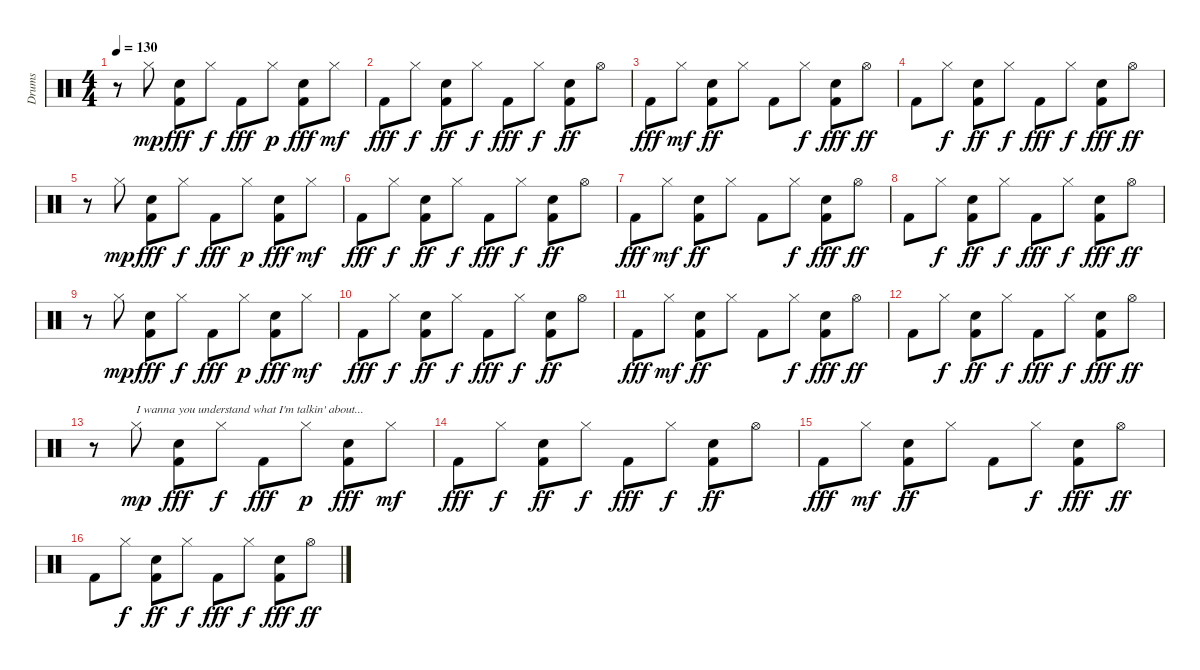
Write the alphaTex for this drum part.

\track ("Drums" "Drums") {instrument percussion}
\staff {score}
\articulation defaults
\ts (4 4)
\tempo 130
\clef neutral
\ks c
r.8{dy ff} "Hi-Hat (closed)".8{dy mp} ("Kick (hit) 2" "Snare (hit) 2").8{dy fff} "Hi-Hat (closed)".8{dy f} "Kick (hit) 2".8{dy fff} "Hi-Hat (closed)".8{dy p} ("Kick (hit) 2" "Snare (hit) 2").8{dy fff} "Hi-Hat (closed)".8{dy mf} |
"Kick (hit) 2".8{dy fff} "Hi-Hat (closed)".8{dy f} ("Kick (hit) 2" "Snare (hit) 2").8{dy ff} "Hi-Hat (closed)".8{dy f} "Kick (hit) 2".8{dy fff} "Hi-Hat (closed)".8{dy f} ("Kick (hit) 2" "Snare (hit) 2").8{dy ff} "Hi-Hat (open)".8 |
"Kick (hit) 2".8{dy fff} "Hi-Hat (closed)".8{dy mf} ("Kick (hit) 2" "Snare (hit) 2").8{dy ff} "Hi-Hat (closed)".8 "Kick (hit) 2".8 "Hi-Hat (closed)".8{dy f} ("Kick (hit) 2" "Snare (hit) 2").8{dy fff} "Hi-Hat (open)".8{dy ff} |
"Kick (hit) 2".8 "Hi-Hat (closed)".8{dy f} ("Kick (hit) 2" "Snare (hit) 2").8{dy ff} "Hi-Hat (closed)".8{dy f} "Kick (hit) 2".8{dy fff} "Hi-Hat (closed)".8{dy f} ("Kick (hit) 2" "Snare (hit) 2").8{dy fff} "Hi-Hat (open)".8{dy ff} |
r.8 "Hi-Hat (closed)".8{dy mp} ("Kick (hit) 2" "Snare (hit) 2").8{dy fff} "Hi-Hat (closed)".8{dy f} "Kick (hit) 2".8{dy fff} "Hi-Hat (closed)".8{dy p} ("Kick (hit) 2" "Snare (hit) 2").8{dy fff} "Hi-Hat (closed)".8{dy mf} |
"Kick (hit) 2".8{dy fff} "Hi-Hat (closed)".8{dy f} ("Kick (hit) 2" "Snare (hit) 2").8{dy ff} "Hi-Hat (closed)".8{dy f} "Kick (hit) 2".8{dy fff} "Hi-Hat (closed)".8{dy f} ("Kick (hit) 2" "Snare (hit) 2").8{dy ff} "Hi-Hat (open)".8 |
"Kick (hit) 2".8{dy fff} "Hi-Hat (closed)".8{dy mf} ("Kick (hit) 2" "Snare (hit) 2").8{dy ff} "Hi-Hat (closed)".8 "Kick (hit) 2".8 "Hi-Hat (closed)".8{dy f} ("Kick (hit) 2" "Snare (hit) 2").8{dy fff} "Hi-Hat (open)".8{dy ff} |
"Kick (hit) 2".8 "Hi-Hat (closed)".8{dy f} ("Kick (hit) 2" "Snare (hit) 2").8{dy ff} "Hi-Hat (closed)".8{dy f} "Kick (hit) 2".8{dy fff} "Hi-Hat (closed)".8{dy f} ("Kick (hit) 2" "Snare (hit) 2").8{dy fff} "Hi-Hat (open)".8{dy ff} |
r.8 "Hi-Hat (closed)".8{dy mp} ("Kick (hit) 2" "Snare (hit) 2").8{dy fff} "Hi-Hat (closed)".8{dy f} "Kick (hit) 2".8{dy fff} "Hi-Hat (closed)".8{dy p} ("Kick (hit) 2" "Snare (hit) 2").8{dy fff} "Hi-Hat (closed)".8{dy mf} |
"Kick (hit) 2".8{dy fff} "Hi-Hat (closed)".8{dy f} ("Kick (hit) 2" "Snare (hit) 2").8{dy ff} "Hi-Hat (closed)".8{dy f} "Kick (hit) 2".8{dy fff} "Hi-Hat (closed)".8{dy f} ("Kick (hit) 2" "Snare (hit) 2").8{dy ff} "Hi-Hat (open)".8 |
"Kick (hit) 2".8{dy fff} "Hi-Hat (closed)".8{dy mf} ("Kick (hit) 2" "Snare (hit) 2").8{dy ff} "Hi-Hat (closed)".8 "Kick (hit) 2".8 "Hi-Hat (closed)".8{dy f} ("Kick (hit) 2" "Snare (hit) 2").8{dy fff} "Hi-Hat (open)".8{dy ff} |
"Kick (hit) 2".8 "Hi-Hat (closed)".8{dy f} ("Kick (hit) 2" "Snare (hit) 2").8{dy ff} "Hi-Hat (closed)".8{dy f} "Kick (hit) 2".8{dy fff} "Hi-Hat (closed)".8{dy f} ("Kick (hit) 2" "Snare (hit) 2").8{dy fff} "Hi-Hat (open)".8{dy ff} |
r.8 "Hi-Hat (closed)".8{txt "I wanna you understand what I'm talkin' about..." dy mp} ("Kick (hit) 2" "Snare (hit) 2").8{dy fff} "Hi-Hat (closed)".8{dy f} "Kick (hit) 2".8{dy fff} "Hi-Hat (closed)".8{dy p} ("Kick (hit) 2" "Snare (hit) 2").8{dy fff} "Hi-Hat (closed)".8{dy mf} |
"Kick (hit) 2".8{dy fff} "Hi-Hat (closed)".8{dy f} ("Kick (hit) 2" "Snare (hit) 2").8{dy ff} "Hi-Hat (closed)".8{dy f} "Kick (hit) 2".8{dy fff} "Hi-Hat (closed)".8{dy f} ("Kick (hit) 2" "Snare (hit) 2").8{dy ff} "Hi-Hat (open)".8 |
"Kick (hit) 2".8{dy fff} "Hi-Hat (closed)".8{dy mf} ("Kick (hit) 2" "Snare (hit) 2").8{dy ff} "Hi-Hat (closed)".8 "Kick (hit) 2".8 "Hi-Hat (closed)".8{dy f} ("Kick (hit) 2" "Snare (hit) 2").8{dy fff} "Hi-Hat (open)".8{dy ff} |
"Kick (hit) 2".8 "Hi-Hat (closed)".8{dy f} ("Kick (hit) 2" "Snare (hit) 2").8{dy ff} "Hi-Hat (closed)".8{dy f} "Kick (hit) 2".8{dy fff} "Hi-Hat (closed)".8{dy f} ("Kick (hit) 2" "Snare (hit) 2").8{dy fff} "Hi-Hat (open)".8{dy ff}
